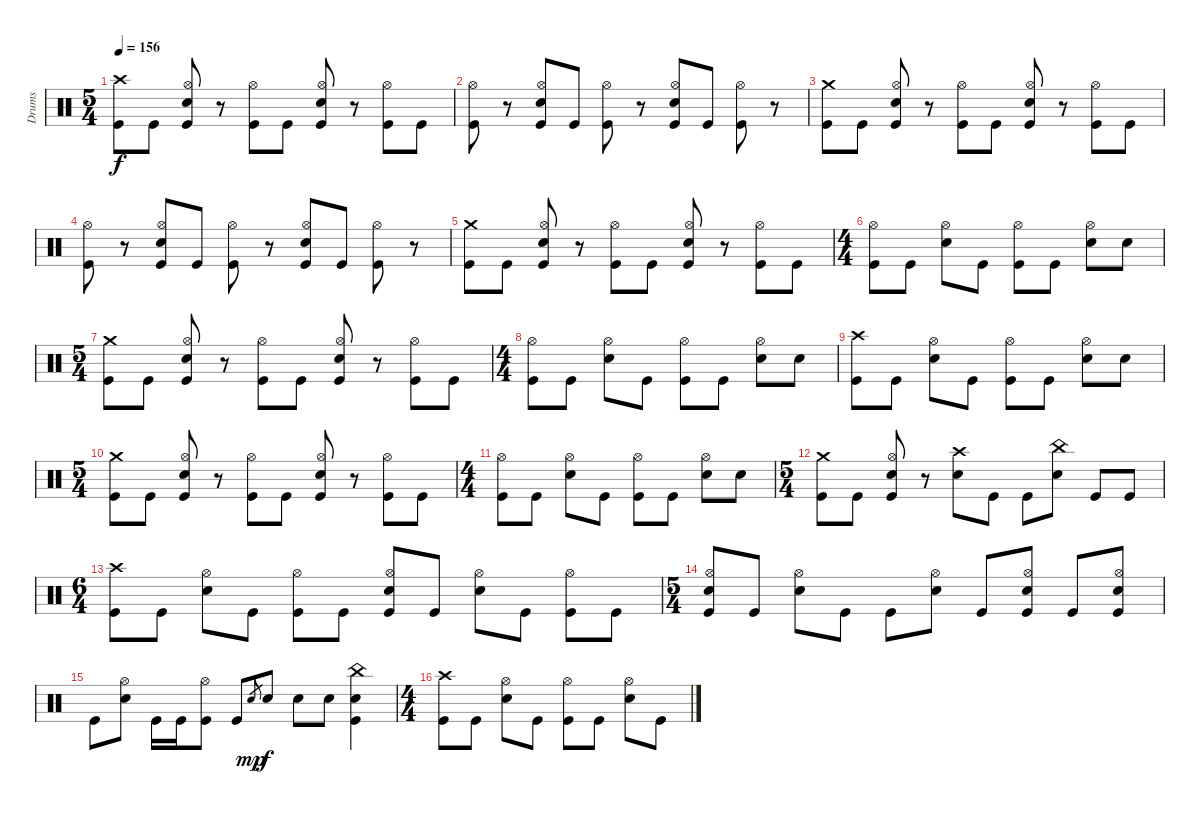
\track ("Drums" "Drums") {instrument percussion}
\staff {score}
\articulation defaults
\ts (5 4)
\tempo 156
\clef neutral
\ks c
("Crash high (hit)" "Kick (hit)").8{dy f} "Kick (hit)".8 ("Hi-Hat (open)" "Electric Snare (hit)" "Kick (hit)").8 r.8 ("Hi-Hat (open)" "Kick (hit)").8 "Kick (hit)".8 ("Hi-Hat (open)" "Electric Snare (hit)" "Kick (hit)").8 r.8 ("Hi-Hat (open)" "Kick (hit)").8 "Kick (hit)".8 |
("Hi-Hat (open)" "Kick (hit)").8 r.8 ("Hi-Hat (open)" "Electric Snare (hit)" "Kick (hit)").8 "Kick (hit)".8 ("Hi-Hat (open)" "Kick (hit)").8 r.8 ("Hi-Hat (open)" "Electric Snare (hit)" "Kick (hit)").8 "Kick (hit)".8 ("Hi-Hat (open)" "Kick (hit)").8 r.8 |
("Crash medium (hit)" "Kick (hit)").8 "Kick (hit)".8 ("Hi-Hat (open)" "Electric Snare (hit)" "Kick (hit)").8 r.8 ("Hi-Hat (open)" "Kick (hit)").8 "Kick (hit)".8 ("Hi-Hat (open)" "Electric Snare (hit)" "Kick (hit)").8 r.8 ("Hi-Hat (open)" "Kick (hit)").8 "Kick (hit)".8 |
("Hi-Hat (open)" "Kick (hit)").8 r.8 ("Hi-Hat (open)" "Electric Snare (hit)" "Kick (hit)").8 "Kick (hit)".8 ("Hi-Hat (open)" "Kick (hit)").8 r.8 ("Hi-Hat (open)" "Electric Snare (hit)" "Kick (hit)").8 "Kick (hit)".8 ("Hi-Hat (open)" "Kick (hit)").8 r.8 |
("Crash medium (hit)" "Kick (hit)").8 "Kick (hit)".8 ("Hi-Hat (open)" "Electric Snare (hit)" "Kick (hit)").8 r.8 ("Hi-Hat (open)" "Kick (hit)").8 "Kick (hit)".8 ("Hi-Hat (open)" "Electric Snare (hit)" "Kick (hit)").8 r.8 ("Hi-Hat (open)" "Kick (hit)").8 "Kick (hit)".8 |
\ts (4 4)
("Hi-Hat (open)" "Kick (hit)").8 "Kick (hit)".8 ("Hi-Hat (open)" "Electric Snare (hit)").8 "Kick (hit)".8 ("Hi-Hat (open)" "Kick (hit)").8 "Kick (hit)".8 ("Hi-Hat (open)" "Electric Snare (hit)").8 "Electric Snare (hit)".8 |
\ts (5 4)
("Crash medium (hit)" "Kick (hit)").8 "Kick (hit)".8 ("Hi-Hat (open)" "Electric Snare (hit)" "Kick (hit)").8 r.8 ("Hi-Hat (open)" "Kick (hit)").8 "Kick (hit)".8 ("Hi-Hat (open)" "Electric Snare (hit)" "Kick (hit)").8 r.8 ("Hi-Hat (open)" "Kick (hit)").8 "Kick (hit)".8 |
\ts (4 4)
("Hi-Hat (open)" "Kick (hit)").8 "Kick (hit)".8 ("Hi-Hat (open)" "Electric Snare (hit)").8 "Kick (hit)".8 ("Hi-Hat (open)" "Kick (hit)").8 "Kick (hit)".8 ("Hi-Hat (open)" "Electric Snare (hit)").8 "Electric Snare (hit)".8 |
("Crash high (hit)" "Kick (hit)").8 "Kick (hit)".8 ("Hi-Hat (open)" "Electric Snare (hit)").8 "Kick (hit)".8 ("Hi-Hat (open)" "Kick (hit)").8 "Kick (hit)".8 ("Hi-Hat (open)" "Electric Snare (hit)").8 "Electric Snare (hit)".8 |
\ts (5 4)
("Crash medium (hit)" "Kick (hit)").8 "Kick (hit)".8 ("Hi-Hat (open)" "Electric Snare (hit)" "Kick (hit)").8 r.8 ("Hi-Hat (open)" "Kick (hit)").8 "Kick (hit)".8 ("Hi-Hat (open)" "Electric Snare (hit)" "Kick (hit)").8 r.8 ("Hi-Hat (open)" "Kick (hit)").8 "Kick (hit)".8 |
\ts (4 4)
("Hi-Hat (open)" "Kick (hit)").8 "Kick (hit)".8 ("Hi-Hat (open)" "Electric Snare (hit)").8 "Kick (hit)".8 ("Hi-Hat (open)" "Kick (hit)").8 "Kick (hit)".8 ("Hi-Hat (open)" "Electric Snare (hit)").8 "Electric Snare (hit)".8 |
\ts (5 4)
("Crash medium (hit)" "Kick (hit)").8 "Kick (hit)".8 ("Hi-Hat (open)" "Electric Snare (hit)" "Kick (hit)").8 r.8 ("Crash high (hit)" "Electric Snare (hit)").8 "Kick (hit)".8 "Kick (hit)".8 ("China (hit)" "Electric Snare (hit)").8 "Kick (hit)".8 "Kick (hit)".8 |
\ts (6 4)
("Crash high (hit)" "Kick (hit)").8 "Kick (hit)".8 ("Hi-Hat (open)" "Electric Snare (hit)").8 "Kick (hit)".8 ("Hi-Hat (open)" "Kick (hit)").8 "Kick (hit)".8 ("Hi-Hat (open)" "Electric Snare (hit)" "Kick (hit)").8 "Kick (hit)".8 ("Hi-Hat (open)" "Electric Snare (hit)").8 "Kick (hit)".8 ("Hi-Hat (open)" "Kick (hit)").8 "Kick (hit)".8 |
\ts (5 4)
("Hi-Hat (open)" "Electric Snare (hit)" "Kick (hit)").8 "Kick (hit)".8 ("Hi-Hat (open)" "Electric Snare (hit)").8 "Kick (hit)".8 "Kick (hit)".8 ("Hi-Hat (open)" "Electric Snare (hit)").8 "Kick (hit)".8 ("Hi-Hat (open)" "Electric Snare (hit)" "Kick (hit)").8 "Kick (hit)".8 ("Hi-Hat (open)" "Electric Snare (hit)" "Kick (hit)").8 |
"Kick (hit)".8 ("Hi-Hat (open)" "Electric Snare (hit)").8 "Kick (hit)".16 "Kick (hit)".16 ("Hi-Hat (open)" "Kick (hit)").8 "Kick (hit)".8 "Electric Snare (hit)".8{gr dy mp} "Electric Snare (hit)".8{dy f} "Electric Snare (hit)".8 "Electric Snare (hit)".8 ("China (hit)" "Electric Snare (hit)" "Kick (hit)").4 |
\ts (4 4)
("Crash high (hit)" "Kick (hit)").8 "Kick (hit)".8 ("Hi-Hat (open)" "Electric Snare (hit)").8 "Kick (hit)".8 ("Hi-Hat (open)" "Kick (hit)").8 "Kick (hit)".8 ("Hi-Hat (open)" "Electric Snare (hit)").8 "Kick (hit)".8
